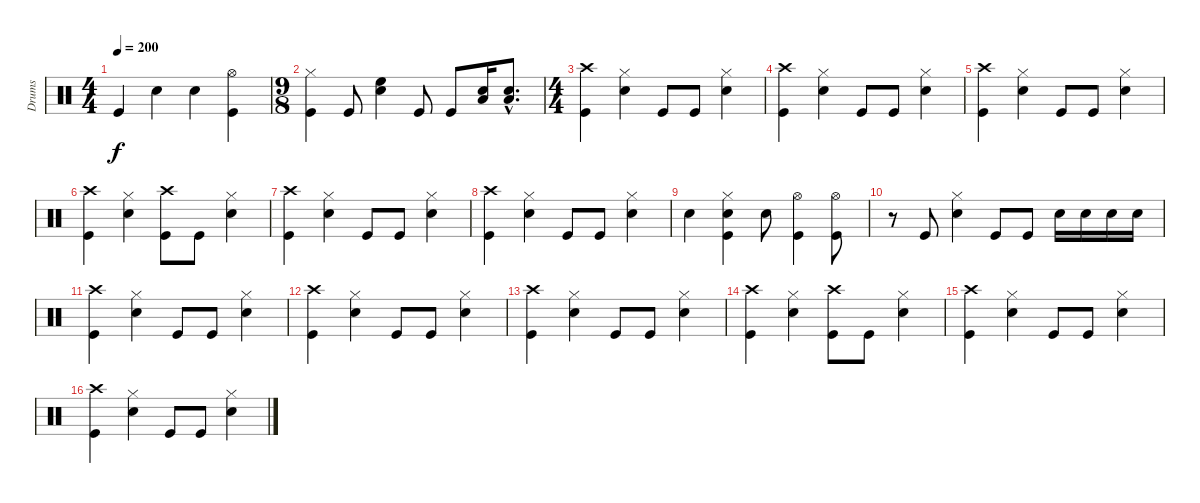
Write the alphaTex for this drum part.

\track ("Drums" "Drums") {instrument percussion}
\staff {score}
\articulation defaults
\ts (4 4)
\tempo 200
\clef neutral
\ks c "Kick (hit)".4{dy f} "Snare (hit) 2".4 "Snare (hit) 2".4
("Hi-Hat (open)" "Kick (hit)").4 |
\ts (9 8)
("Hi-Hat (closed)" "Kick (hit)").4 "Kick (hit)".8 ("Snare (hit) 2" "High Floor Tom (hit)").4 "Kick (hit)".8 "Kick (hit)".8 ("Snare (hit) 2" "Low Tom (hit)").16 ("Snare (hit) 2"{hac} "Low Tom (hit)"{hac}).8{d} |
\ts (4 4)
("Crash high (hit)" "Kick (hit)").4 ("Hi-Hat (closed)" "Snare (hit) 2").4 "Kick (hit)".8 "Kick (hit)".8 ("Hi-Hat (closed)" "Snare (hit) 2").4 |
("Crash high (hit)" "Kick (hit)").4 ("Hi-Hat (closed)" "Snare (hit) 2").4 "Kick (hit)".8 "Kick (hit)".8 ("Hi-Hat (closed)" "Snare (hit) 2").4 |
("Crash high (hit)" "Kick (hit)").4 ("Hi-Hat (closed)" "Snare (hit) 2").4 "Kick (hit)".8 "Kick (hit)".8 ("Hi-Hat (closed)" "Snare (hit) 2").4 |
("Crash high (hit)" "Kick (hit)").4 ("Hi-Hat (closed)" "Snare (hit) 2").4 ("Crash high (hit)" "Kick (hit)").8 "Kick (hit)".8 ("Hi-Hat (closed)" "Snare (hit) 2").4 |
("Crash high (hit)" "Kick (hit)").4 ("Hi-Hat (closed)" "Snare (hit) 2").4 "Kick (hit)".8 "Kick (hit)".8 ("Hi-Hat (closed)" "Snare (hit) 2").4 |
("Crash high (hit)" "Kick (hit)").4 ("Hi-Hat (closed)" "Snare (hit) 2").4 "Kick (hit)".8 "Kick (hit)".8 ("Hi-Hat (closed)" "Snare (hit) 2").4 |
"Snare (hit) 2".4 ("Hi-Hat (closed)" "Snare (hit) 2" "Kick (hit)").4 "Snare (hit) 2".8 ("Hi-Hat (open)" "Kick (hit)").4 ("Hi-Hat (open)" "Kick (hit)").8 |
r.8 "Kick (hit)".8 ("Hi-Hat (closed)" "Snare (hit) 2").4 "Kick (hit)".8 "Kick (hit)".8 "Snare (hit) 2".16 "Snare (hit) 2".16 "Snare (hit) 2".16 "Snare (hit) 2".16 |
("Crash high (hit)" "Kick (hit)").4 ("Hi-Hat (closed)" "Snare (hit) 2").4 "Kick (hit)".8 "Kick (hit)".8 ("Hi-Hat (closed)" "Snare (hit) 2").4 |
("Crash high (hit)" "Kick (hit)").4 ("Hi-Hat (closed)" "Snare (hit) 2").4 "Kick (hit)".8 "Kick (hit)".8 ("Hi-Hat (closed)" "Snare (hit) 2").4 |
("Crash high (hit)" "Kick (hit)").4 ("Hi-Hat (closed)" "Snare (hit) 2").4 "Kick (hit)".8 "Kick (hit)".8 ("Hi-Hat (closed)" "Snare (hit) 2").4 |
("Crash high (hit)" "Kick (hit)").4 ("Hi-Hat (closed)" "Snare (hit) 2").4 ("Crash high (hit)" "Kick (hit)").8 "Kick (hit)".8 ("Hi-Hat (closed)" "Snare (hit) 2").4 |
("Crash high (hit)" "Kick (hit)").4 ("Hi-Hat (closed)" "Snare (hit) 2").4 "Kick (hit)".8 "Kick (hit)".8 ("Hi-Hat (closed)" "Snare (hit) 2").4 |
("Crash high (hit)" "Kick (hit)").4 ("Hi-Hat (closed)" "Snare (hit) 2").4 "Kick (hit)".8 "Kick (hit)".8 ("Hi-Hat (closed)" "Snare (hit) 2").4
